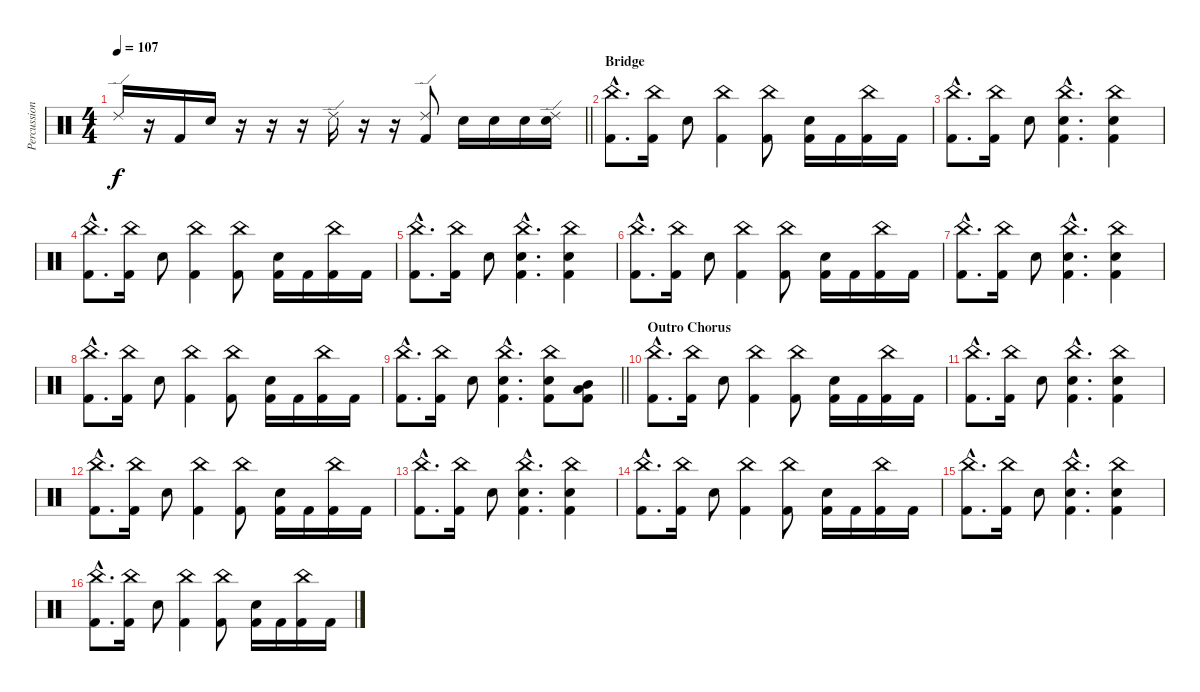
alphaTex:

\track ("Percussion" "Percussion") {instrument percussion}
\staff {score}
\articulation defaults
\ts (4 4)
\tempo 107
\clef neutral
\barLineRight lightlight
\ks c "Ride (edge) 2".16{dy f}
r.16 "Kick (hit) 2".16 "Electric Snare (hit)".16 r.16 r.16 r.16 "Ride (edge) 2".16 r.16 r.16 ("Ride (edge) 2" "Kick (hit) 2").8 "Electric Snare (hit)".16 "Electric Snare (hit)".16 "Electric Snare (hit)".16 ("Ride (edge) 2" "Electric Snare (hit)").16 |
\section ("" "Bridge")
("China (hit)"{hac} "Kick (hit) 2"{hac}).8{d} ("China (hit)" "Kick (hit) 2").16 "Electric Snare (hit)".8 ("China (hit)" "Kick (hit) 2").4 ("China (hit)" "Kick (hit) 2").8 ("Electric Snare (hit)" "Kick (hit) 2").16 "Kick (hit) 2".16 ("China (hit)" "Kick (hit) 2").16 "Kick (hit) 2".16 |
("China (hit)"{hac} "Kick (hit) 2"{hac}).8{d} ("China (hit)" "Kick (hit) 2").16 "Electric Snare (hit)".8 ("China (hit)"{hac} "Electric Snare (hit)"{hac} "Kick (hit) 2"{hac}).4{d} ("China (hit)" "Electric Snare (hit)" "Kick (hit) 2").4 |
("China (hit)"{hac} "Kick (hit) 2"{hac}).8{d} ("China (hit)" "Kick (hit) 2").16 "Electric Snare (hit)".8 ("China (hit)" "Kick (hit) 2").4 ("China (hit)" "Kick (hit) 2").8 ("Electric Snare (hit)" "Kick (hit) 2").16 "Kick (hit) 2".16 ("China (hit)" "Kick (hit) 2").16 "Kick (hit) 2".16 |
("China (hit)"{hac} "Kick (hit) 2"{hac}).8{d} ("China (hit)" "Kick (hit) 2").16 "Electric Snare (hit)".8 ("China (hit)"{hac} "Electric Snare (hit)"{hac} "Kick (hit) 2"{hac}).4{d} ("China (hit)" "Electric Snare (hit)" "Kick (hit) 2").4 |
("China (hit)"{hac} "Kick (hit) 2"{hac}).8{d} ("China (hit)" "Kick (hit) 2").16 "Electric Snare (hit)".8 ("China (hit)" "Kick (hit) 2").4 ("China (hit)" "Kick (hit) 2").8 ("Electric Snare (hit)" "Kick (hit) 2").16 "Kick (hit) 2".16 ("China (hit)" "Kick (hit) 2").16 "Kick (hit) 2".16 |
("China (hit)"{hac} "Kick (hit) 2"{hac}).8{d} ("China (hit)" "Kick (hit) 2").16 "Electric Snare (hit)".8 ("China (hit)"{hac} "Electric Snare (hit)"{hac} "Kick (hit) 2"{hac}).4{d} ("China (hit)" "Electric Snare (hit)" "Kick (hit) 2").4 |
("China (hit)"{hac} "Kick (hit) 2"{hac}).8{d} ("China (hit)" "Kick (hit) 2").16 "Electric Snare (hit)".8 ("China (hit)" "Kick (hit) 2").4 ("China (hit)" "Kick (hit) 2").8 ("Electric Snare (hit)" "Kick (hit) 2").16 "Kick (hit) 2".16 ("China (hit)" "Kick (hit) 2").16 "Kick (hit) 2".16 |
\barLineRight lightlight
("China (hit)"{hac} "Kick (hit) 2"{hac}).8{d} ("China (hit)" "Kick (hit) 2").16 "Electric Snare (hit)".8 ("China (hit)"{hac} "Electric Snare (hit)"{hac} "Kick (hit) 2"{hac}).4{d} ("China (hit)" "Electric Snare (hit)" "Kick (hit) 2").8 ("Mid Tom (hit)" "Low Tom (hit)" "Kick (hit) 2").8 |
\section ("" "Outro Chorus")
("China (hit)"{hac} "Kick (hit) 2"{hac}).8{d} ("China (hit)" "Kick (hit) 2").16 "Electric Snare (hit)".8 ("China (hit)" "Kick (hit) 2").4 ("China (hit)" "Kick (hit) 2").8 ("Electric Snare (hit)" "Kick (hit) 2").16 "Kick (hit) 2".16 ("China (hit)" "Kick (hit) 2").16 "Kick (hit) 2".16 |
("China (hit)"{hac} "Kick (hit) 2"{hac}).8{d} ("China (hit)" "Kick (hit) 2").16 "Electric Snare (hit)".8 ("China (hit)"{hac} "Electric Snare (hit)"{hac} "Kick (hit) 2"{hac}).4{d} ("China (hit)" "Electric Snare (hit)" "Kick (hit) 2").4 |
("China (hit)"{hac} "Kick (hit) 2"{hac}).8{d} ("China (hit)" "Kick (hit) 2").16 "Electric Snare (hit)".8 ("China (hit)" "Kick (hit) 2").4 ("China (hit)" "Kick (hit) 2").8 ("Electric Snare (hit)" "Kick (hit) 2").16 "Kick (hit) 2".16 ("China (hit)" "Kick (hit) 2").16 "Kick (hit) 2".16 |
("China (hit)"{hac} "Kick (hit) 2"{hac}).8{d} ("China (hit)" "Kick (hit) 2").16 "Electric Snare (hit)".8 ("China (hit)"{hac} "Electric Snare (hit)"{hac} "Kick (hit) 2"{hac}).4{d} ("China (hit)" "Electric Snare (hit)" "Kick (hit) 2").4 |
("China (hit)"{hac} "Kick (hit) 2"{hac}).8{d} ("China (hit)" "Kick (hit) 2").16 "Electric Snare (hit)".8 ("China (hit)" "Kick (hit) 2").4 ("China (hit)" "Kick (hit) 2").8 ("Electric Snare (hit)" "Kick (hit) 2").16 "Kick (hit) 2".16 ("China (hit)" "Kick (hit) 2").16 "Kick (hit) 2".16 |
("China (hit)"{hac} "Kick (hit) 2"{hac}).8{d} ("China (hit)" "Kick (hit) 2").16 "Electric Snare (hit)".8 ("China (hit)"{hac} "Electric Snare (hit)"{hac} "Kick (hit) 2"{hac}).4{d} ("China (hit)" "Electric Snare (hit)" "Kick (hit) 2").4 |
("China (hit)"{hac} "Kick (hit) 2"{hac}).8{d} ("China (hit)" "Kick (hit) 2").16 "Electric Snare (hit)".8 ("China (hit)" "Kick (hit) 2").4 ("China (hit)" "Kick (hit) 2").8 ("Electric Snare (hit)" "Kick (hit) 2").16 "Kick (hit) 2".16 ("China (hit)" "Kick (hit) 2").16 "Kick (hit) 2".16
